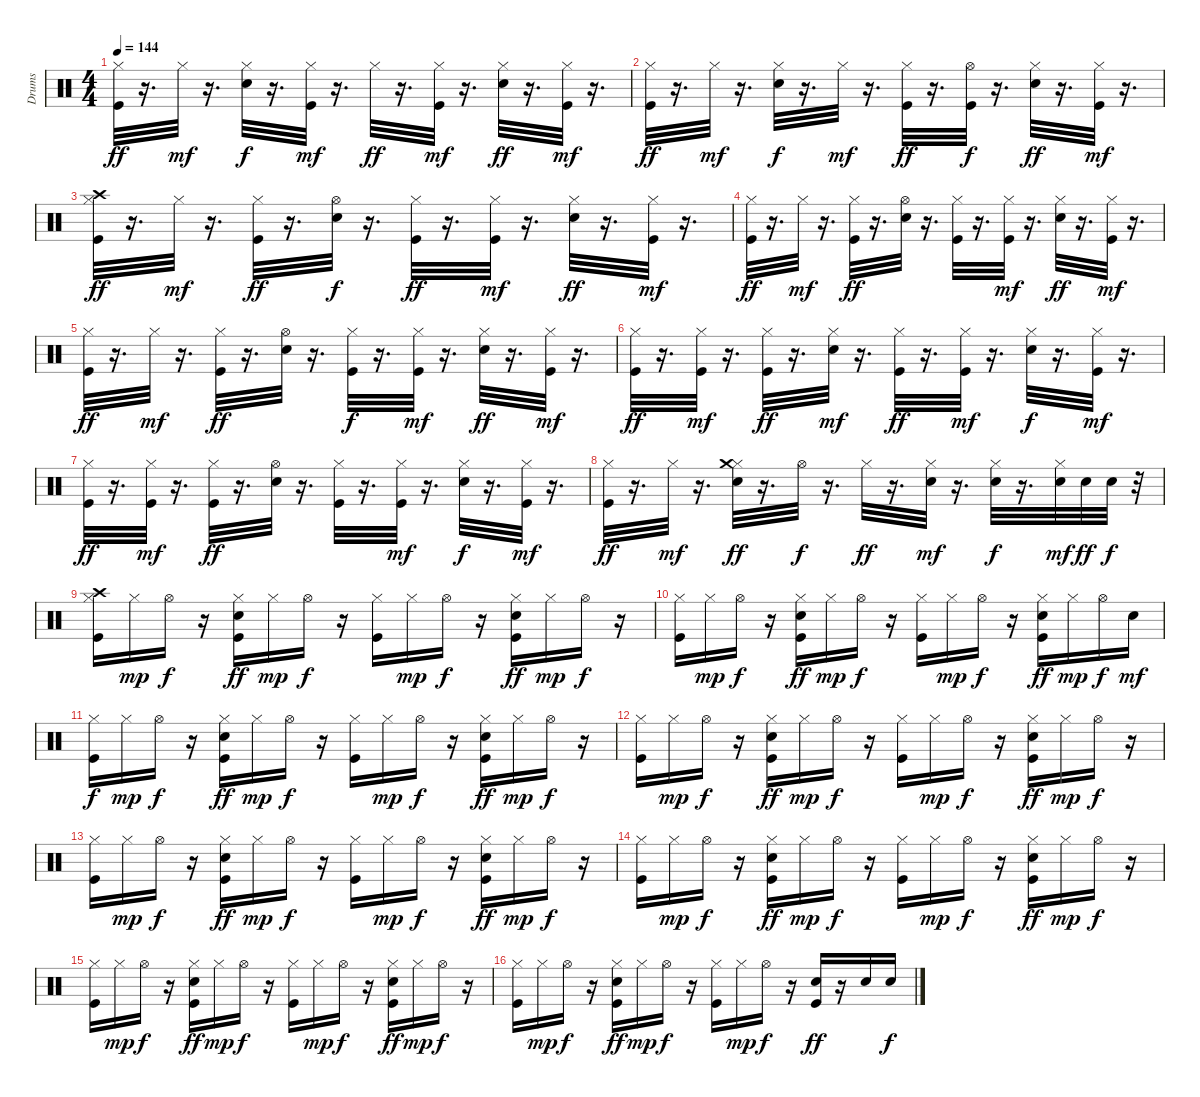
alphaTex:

\track ("Drums" "Drums") {instrument percussion}
\staff {score}
\articulation defaults
\ts (4 4)
\tempo 144
\clef neutral
\ks c
("Hi-Hat (closed)" "Kick (hit)").32{dy ff} r.16{d} "Hi-Hat (closed)".32{dy mf} r.16{d} ("Snare (hit) 2" "Hi-Hat (closed)").32{dy f} r.16{d} ("Kick (hit)" "Hi-Hat (closed)").32{dy mf} r.16{d} "Hi-Hat (closed)".32{dy ff} r.16{d} ("Hi-Hat (closed)" "Kick (hit)").32{dy mf} r.16{d} ("Snare (hit) 2" "Hi-Hat (closed)").32{dy ff} r.16{d} ("Hi-Hat (closed)" "Kick (hit)").32{dy mf} r.16{d} |
("Kick (hit)" "Hi-Hat (closed)").32{dy ff} r.16{d} "Hi-Hat (closed)".32{dy mf} r.16{d} ("Snare (hit) 2" "Hi-Hat (closed)").32{dy f} r.16{d} "Hi-Hat (closed)".32{dy mf} r.16{d} ("Hi-Hat (closed)" "Kick (hit)").32{dy ff} r.16{d} ("Hi-Hat (open)" "Kick (hit)").32{dy f} r.16{d} ("Snare (hit) 2" "Hi-Hat (closed)").32{dy ff} r.16{d} ("Hi-Hat (closed)" "Kick (hit)").32{dy mf} r.16{d} |
("Hi-Hat (closed)" "Crash high (hit)" "Kick (hit)").32{dy ff} r.16{d} "Hi-Hat (closed)".32{dy mf} r.16{d} ("Kick (hit)" "Hi-Hat (closed)").32{dy ff} r.16{d} ("Snare (hit) 2" "Hi-Hat (open)").32{dy f} r.16{d} ("Kick (hit)" "Hi-Hat (closed)").32{dy ff} r.16{d} ("Kick (hit)" "Hi-Hat (closed)").32{dy mf} r.16{d} ("Snare (hit) 2" "Hi-Hat (closed)").32{dy ff} r.16{d} ("Hi-Hat (closed)" "Kick (hit)").32{dy mf} r.16{d} |
("Kick (hit)" "Hi-Hat (closed)").32{dy ff} r.16{d} "Hi-Hat (closed)".32{dy mf} r.16{d} ("Kick (hit)" "Hi-Hat (closed)").32{dy ff} r.16{d} ("Snare (hit) 2" "Hi-Hat (open)").32 r.16{d} ("Hi-Hat (closed)" "Kick (hit)").32 r.16{d} ("Kick (hit)" "Hi-Hat (closed)").32{dy mf} r.16{d} ("Hi-Hat (closed)" "Snare (hit) 2").32{dy ff} r.16{d} ("Kick (hit)" "Hi-Hat (closed)").32{dy mf} r.16{d} |
("Kick (hit)" "Hi-Hat (closed)").32{dy ff} r.16{d} "Hi-Hat (closed)".32{dy mf} r.16{d} ("Hi-Hat (closed)" "Kick (hit)").32{dy ff} r.16{d} ("Hi-Hat (open)" "Snare (hit) 2").32 r.16{d} ("Kick (hit)" "Hi-Hat (closed)").32{dy f} r.16{d} ("Kick (hit)" "Hi-Hat (closed)").32{dy mf} r.16{d} ("Hi-Hat (closed)" "Snare (hit) 2").32{dy ff} r.16{d} ("Hi-Hat (closed)" "Kick (hit)").32{dy mf} r.16{d} |
("Kick (hit)" "Hi-Hat (closed)").32{dy ff} r.16{d} ("Kick (hit)" "Hi-Hat (closed)").32{dy mf} r.16{d} ("Kick (hit)" "Hi-Hat (closed)").32{dy ff} r.16{d} ("Hi-Hat (closed)" "Snare (hit) 2").32{dy mf} r.16{d} ("Hi-Hat (closed)" "Kick (hit)").32{dy ff} r.16{d} ("Kick (hit)" "Hi-Hat (closed)").32{dy mf} r.16{d} ("Snare (hit) 2" "Hi-Hat (closed)").32{dy f} r.16{d} ("Hi-Hat (closed)" "Kick (hit)").32{dy mf} r.16{d} |
("Hi-Hat (closed)" "Kick (hit)").32{dy ff} r.16{d} ("Hi-Hat (closed)" "Kick (hit)").32{dy mf} r.16{d} ("Hi-Hat (closed)" "Kick (hit)").32{dy ff} r.16{d} ("Snare (hit) 2" "Hi-Hat (open)").32 r.16{d} ("Kick (hit)" "Hi-Hat (closed)").32 r.16{d} ("Kick (hit)" "Hi-Hat (closed)").32{dy mf} r.16{d} ("Hi-Hat (closed)" "Snare (hit) 2").32{dy f} r.16{d} ("Kick (hit)" "Hi-Hat (closed)").32{dy mf} r.16{d} |
("Hi-Hat (closed)" "Kick (hit)").32{dy ff} r.16{d} "Hi-Hat (closed)".32{dy mf} r.16{d} ("Snare (hit) 2" "Hi-Hat (closed)" "Crash medium (hit)").32{dy ff} r.16{d} "Hi-Hat (open)".32{dy f} r.16{d} "Hi-Hat (closed)".32{dy ff} r.16{d} ("Hi-Hat (closed)" "Snare (hit) 2").32{dy mf} r.16{d} ("Hi-Hat (closed)" "Snare (hit) 2").32{dy f} r.16{d} ("Hi-Hat (closed)" "Snare (hit) 2").32{dy mf} "Snare (hit) 2".32{dy ff} "Snare (hit) 2".32{dy f} r.32 |
("Kick (hit)" "Hi-Hat (closed)" "Crash high (hit)").16 "Hi-Hat (closed)".16{dy mp} "Hi-Hat (open)".16{dy f} r.16 ("Kick (hit)" "Snare (hit) 2" "Hi-Hat (closed)").16{dy ff} "Hi-Hat (closed)".16{dy mp} "Hi-Hat (open)".16{dy f} r.16 ("Kick (hit)" "Hi-Hat (closed)").16 "Hi-Hat (closed)".16{dy mp} "Hi-Hat (open)".16{dy f} r.16 ("Kick (hit)" "Snare (hit) 2" "Hi-Hat (closed)").16{dy ff} "Hi-Hat (closed)".16{dy mp} "Hi-Hat (open)".16{dy f} r.16 |
("Kick (hit)" "Hi-Hat (closed)").16 "Hi-Hat (closed)".16{dy mp} "Hi-Hat (open)".16{dy f} r.16 ("Kick (hit)" "Snare (hit) 2" "Hi-Hat (closed)").16{dy ff} "Hi-Hat (closed)".16{dy mp} "Hi-Hat (open)".16{dy f} r.16 ("Kick (hit)" "Hi-Hat (closed)").16 "Hi-Hat (closed)".16{dy mp} "Hi-Hat (open)".16{dy f} r.16 ("Kick (hit)" "Snare (hit) 2" "Hi-Hat (closed)").16{dy ff} "Hi-Hat (closed)".16{dy mp} "Hi-Hat (open)".16{dy f} "Snare (hit) 2".16{dy mf} |
("Kick (hit)" "Hi-Hat (closed)").16{dy f} "Hi-Hat (closed)".16{dy mp} "Hi-Hat (open)".16{dy f} r.16 ("Kick (hit)" "Snare (hit) 2" "Hi-Hat (closed)").16{dy ff} "Hi-Hat (closed)".16{dy mp} "Hi-Hat (open)".16{dy f} r.16 ("Kick (hit)" "Hi-Hat (closed)").16 "Hi-Hat (closed)".16{dy mp} "Hi-Hat (open)".16{dy f} r.16 ("Kick (hit)" "Snare (hit) 2" "Hi-Hat (closed)").16{dy ff} "Hi-Hat (closed)".16{dy mp} "Hi-Hat (open)".16{dy f} r.16 |
("Kick (hit)" "Hi-Hat (closed)").16 "Hi-Hat (closed)".16{dy mp} "Hi-Hat (open)".16{dy f} r.16 ("Kick (hit)" "Snare (hit) 2" "Hi-Hat (closed)").16{dy ff} "Hi-Hat (closed)".16{dy mp} "Hi-Hat (open)".16{dy f} r.16 ("Kick (hit)" "Hi-Hat (closed)").16 "Hi-Hat (closed)".16{dy mp} "Hi-Hat (open)".16{dy f} r.16 ("Kick (hit)" "Snare (hit) 2" "Hi-Hat (closed)").16{dy ff} "Hi-Hat (closed)".16{dy mp} "Hi-Hat (open)".16{dy f} r.16 |
("Kick (hit)" "Hi-Hat (closed)").16 "Hi-Hat (closed)".16{dy mp} "Hi-Hat (open)".16{dy f} r.16 ("Kick (hit)" "Snare (hit) 2" "Hi-Hat (closed)").16{dy ff} "Hi-Hat (closed)".16{dy mp} "Hi-Hat (open)".16{dy f} r.16 ("Kick (hit)" "Hi-Hat (closed)").16 "Hi-Hat (closed)".16{dy mp} "Hi-Hat (open)".16{dy f} r.16 ("Kick (hit)" "Snare (hit) 2" "Hi-Hat (closed)").16{dy ff} "Hi-Hat (closed)".16{dy mp} "Hi-Hat (open)".16{dy f} r.16 |
("Kick (hit)" "Hi-Hat (closed)").16 "Hi-Hat (closed)".16{dy mp} "Hi-Hat (open)".16{dy f} r.16 ("Kick (hit)" "Snare (hit) 2" "Hi-Hat (closed)").16{dy ff} "Hi-Hat (closed)".16{dy mp} "Hi-Hat (open)".16{dy f} r.16 ("Kick (hit)" "Hi-Hat (closed)").16 "Hi-Hat (closed)".16{dy mp} "Hi-Hat (open)".16{dy f} r.16 ("Kick (hit)" "Snare (hit) 2" "Hi-Hat (closed)").16{dy ff} "Hi-Hat (closed)".16{dy mp} "Hi-Hat (open)".16{dy f} r.16 |
("Kick (hit)" "Hi-Hat (closed)").16 "Hi-Hat (closed)".16{dy mp} "Hi-Hat (open)".16{dy f} r.16 ("Kick (hit)" "Snare (hit) 2" "Hi-Hat (closed)").16{dy ff} "Hi-Hat (closed)".16{dy mp} "Hi-Hat (open)".16{dy f} r.16 ("Kick (hit)" "Hi-Hat (closed)").16 "Hi-Hat (closed)".16{dy mp} "Hi-Hat (open)".16{dy f} r.16 ("Kick (hit)" "Snare (hit) 2" "Hi-Hat (closed)").16{dy ff} "Hi-Hat (closed)".16{dy mp} "Hi-Hat (open)".16{dy f} r.16 |
("Kick (hit)" "Hi-Hat (closed)").16 "Hi-Hat (closed)".16{dy mp} "Hi-Hat (open)".16{dy f} r.16 ("Kick (hit)" "Snare (hit) 2" "Hi-Hat (closed)").16{dy ff} "Hi-Hat (closed)".16{dy mp} "Hi-Hat (open)".16{dy f} r.16 ("Kick (hit)" "Hi-Hat (closed)").16 "Hi-Hat (closed)".16{dy mp} "Hi-Hat (open)".16{dy f} r.16 ("Kick (hit)" "Snare (hit) 2").16{dy ff} r.16 "Snare (hit) 2".16 "Snare (hit) 2".16{dy f}
